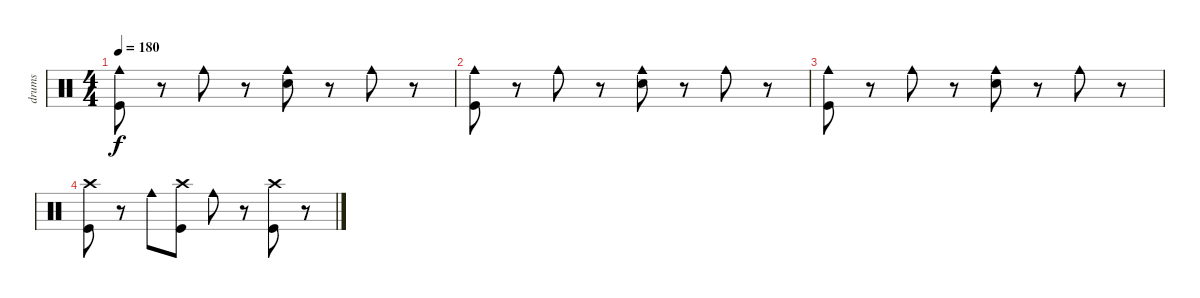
\track ("drums" "drums") {instrument percussion}
\staff {score}
\articulation defaults
\ts (4 4)
\tempo 180
\clef neutral
\ks c
("Cowbell medium (hit)" "Kick (hit)").8{dy f} r.8 "Cowbell medium (hit)".8 r.8 ("Cowbell medium (hit)" "Electric Snare (hit)").8 r.8 "Cowbell medium (hit)".8 r.8 |
("Cowbell medium (hit)" "Kick (hit)").8 r.8 "Cowbell medium (hit)".8 r.8 ("Cowbell medium (hit)" "Electric Snare (hit)").8 r.8 "Cowbell medium (hit)".8 r.8 |
("Cowbell medium (hit)" "Kick (hit)").8 r.8 "Cowbell medium (hit)".8 r.8 ("Cowbell medium (hit)" "Electric Snare (hit)").8 r.8 "Cowbell medium (hit)".8 r.8 |
("Crash high (hit)" "Kick (hit)").8 r.8 "Cowbell medium (hit)".8 ("Crash high (hit)" "Kick (hit)").8 "Cowbell medium (hit)".8 r.8 ("Crash high (hit)" "Kick (hit)").8 r.8
